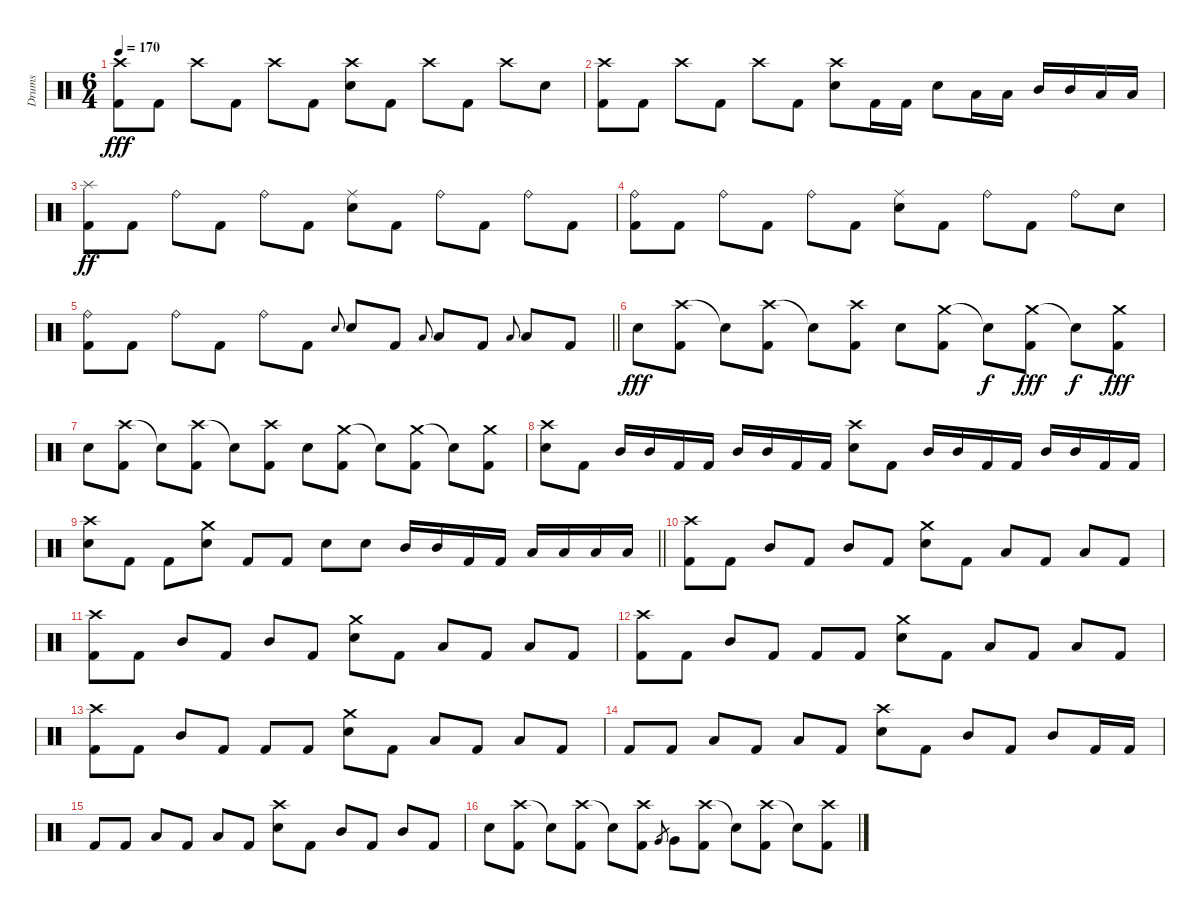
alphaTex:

\track ("Drums" "Drums") {instrument percussion}
\staff {score}
\articulation defaults
\ts (6 4)
\tempo 170
\clef neutral
\ks c
("Crash high (hit)" "Kick (hit) 2").8{dy fff} "Kick (hit) 2".8 "Crash high (hit)".8 "Kick (hit) 2".8 "Crash high (hit)".8 "Kick (hit) 2".8 ("Crash high (hit)" "Snare (hit) 2").8 "Kick (hit) 2".8 "Crash high (hit)".8 "Kick (hit) 2".8 "Crash high (hit)".8 "Snare (hit) 2".8 |
("Crash high (hit)" "Kick (hit) 2").8 "Kick (hit) 2".8 "Crash high (hit)".8 "Kick (hit) 2".8 "Crash high (hit)".8 "Kick (hit) 2".8 ("Crash high (hit)" "Snare (hit) 2").8 "Kick (hit) 2".16 "Kick (hit) 2".16 "Snare (hit) 2".8 "Low Tom (hit)".16 "Low Tom (hit)".16 "Mid Tom (hit)".16 "Mid Tom (hit)".16 "Low Tom (hit)".16 "Low Tom (hit)".16 |
("Splash (hit)" "Kick (hit) 2").8{dy ff} "Kick (hit) 2".8 "Ride (bell)".8 "Kick (hit) 2".8 "Ride (bell)".8 "Kick (hit) 2".8 ("Ride (middle)" "Snare (hit) 2").8 "Kick (hit) 2".8 "Ride (bell)".8 "Kick (hit) 2".8 "Ride (bell)".8 "Kick (hit) 2".8 |
("Ride (bell)" "Kick (hit) 2").8 "Kick (hit) 2".8 "Ride (bell)".8 "Kick (hit) 2".8 "Ride (bell)".8 "Kick (hit) 2".8 ("Ride (middle)" "Snare (hit) 2").8 "Kick (hit) 2".8 "Ride (bell)".8 "Kick (hit) 2".8 "Ride (bell)".8 "Snare (hit) 2".8 |
\barLineRight lightlight
("Ride (bell)" "Kick (hit) 2").8 "Kick (hit) 2".8 "Ride (bell)".8 "Kick (hit) 2".8 "Ride (bell)".8 "Kick (hit) 2".8 "Snare (hit) 2".8{gr onbeat} "Snare (hit) 2".8 "Kick (hit) 2".8 "Low Tom (hit)".8{gr onbeat} "Low Tom (hit)".8 "Kick (hit) 2".8 "Low Tom (hit)".8{gr onbeat} "Low Tom (hit)".8 "Kick (hit) 2".8 |
"Snare (hit) 2".8{dy fff} ("Crash high (hit)" "Kick (hit) 2").8 "Snare (hit)"{t}.8 ("Crash high (hit)" "Kick (hit) 2").8 "Snare (hit)"{t}.8 ("Crash high (hit)" "Kick (hit) 2").8 "Snare (hit) 2".8 ("Crash medium (hit)" "Kick (hit) 2").8 "Snare (hit)"{t}.8{dy f} ("Crash medium (hit)" "Kick (hit) 2").8{dy fff} "Snare (hit)"{t}.8{dy f} ("Crash medium (hit)" "Kick (hit) 2").8{dy fff} |
"Snare (hit) 2".8 ("Crash high (hit)" "Kick (hit) 2").8 "Snare (hit)"{t}.8 ("Crash high (hit)" "Kick (hit) 2").8 "Snare (hit)"{t}.8 ("Crash high (hit)" "Kick (hit) 2").8 "Snare (hit) 2".8 ("Crash medium (hit)" "Kick (hit) 2").8 "Snare (hit)"{t}.8 ("Crash medium (hit)" "Kick (hit) 2").8 "Snare (hit)"{t}.8 ("Crash medium (hit)" "Kick (hit) 2").8 |
("Crash high (hit)" "Snare (hit) 2").8 "Kick (hit) 2".8 "Mid Tom (hit)".16 "Mid Tom (hit)".16 "Kick (hit) 2".16 "Kick (hit) 2".16 "Mid Tom (hit)".16 "Mid Tom (hit)".16 "Kick (hit) 2".16 "Kick (hit) 2".16 ("Crash high (hit)" "Snare (hit) 2").8 "Kick (hit) 2".8 "Mid Tom (hit)".16 "Mid Tom (hit)".16 "Kick (hit) 2".16 "Kick (hit) 2".16 "Mid Tom (hit)".16 "Mid Tom (hit)".16 "Kick (hit) 2".16 "Kick (hit) 2".16 |
\barLineRight lightlight
("Crash high (hit)" "Snare (hit) 2").8 "Kick (hit) 2".8 "Kick (hit) 2".8 ("Crash medium (hit)" "Snare (hit) 2").8 "Kick (hit) 2".8 "Kick (hit) 2".8 "Snare (hit) 2".8 "Snare (hit) 2".8 "Mid Tom (hit)".16 "Mid Tom (hit)".16 "Kick (hit) 2".16 "Kick (hit) 2".16 "Low Tom (hit)".16 "Low Tom (hit)".16 "Low Tom (hit)".16 "Low Tom (hit)".16 |
\section ("" "")
("Crash high (hit)" "Kick (hit) 2").8 "Kick (hit) 2".8 "Mid Tom (hit)".8 "Kick (hit) 2".8 "Mid Tom (hit)".8 "Kick (hit) 2".8 ("Crash medium (hit)" "Snare (hit) 2").8 "Kick (hit) 2".8 "Low Tom (hit)".8 "Kick (hit) 2".8 "Low Tom (hit)".8 "Kick (hit) 2".8 |
("Crash high (hit)" "Kick (hit) 2").8 "Kick (hit) 2".8 "Mid Tom (hit)".8 "Kick (hit) 2".8 "Mid Tom (hit)".8 "Kick (hit) 2".8 ("Crash medium (hit)" "Snare (hit) 2").8 "Kick (hit) 2".8 "Low Tom (hit)".8 "Kick (hit) 2".8 "Low Tom (hit)".8 "Kick (hit) 2".8 |
("Crash high (hit)" "Kick (hit) 2").8 "Kick (hit) 2".8 "Mid Tom (hit)".8 "Kick (hit) 2".8 "Kick (hit) 2".8 "Kick (hit) 2".8 ("Crash medium (hit)" "Snare (hit) 2").8 "Kick (hit) 2".8 "Low Tom (hit)".8 "Kick (hit) 2".8 "Low Tom (hit)".8 "Kick (hit) 2".8 |
("Crash high (hit)" "Kick (hit) 2").8 "Kick (hit) 2".8 "Mid Tom (hit)".8 "Kick (hit) 2".8 "Kick (hit) 2".8 "Kick (hit) 2".8 ("Crash medium (hit)" "Snare (hit) 2").8 "Kick (hit) 2".8 "Low Tom (hit)".8 "Kick (hit) 2".8 "Low Tom (hit)".8 "Kick (hit) 2".8 |
"Kick (hit) 2".8 "Kick (hit) 2".8 "Low Tom (hit)".8 "Kick (hit) 2".8 "Low Tom (hit)".8 "Kick (hit) 2".8 ("Crash high (hit)" "Snare (hit) 2").8 "Kick (hit) 2".8 "Mid Tom (hit)".8 "Kick (hit) 2".8 "Mid Tom (hit)".8 "Kick (hit) 2".16 "Kick (hit) 2".16 |
"Kick (hit) 2".8 "Kick (hit) 2".8 "Low Tom (hit)".8 "Kick (hit) 2".8 "Low Tom (hit)".8 "Kick (hit) 2".8 ("Crash high (hit)" "Snare (hit) 2").8 "Kick (hit) 2".8 "Mid Tom (hit)".8 "Kick (hit) 2".8 "Mid Tom (hit)".8 "Kick (hit) 2".8 |
"Snare (hit) 2".8 ("Crash high (hit)" "Kick (hit) 2").8 "Snare (hit)"{t}.8 ("Crash high (hit)" "Kick (hit) 2").8 "Snare (hit)"{t}.8 ("Crash high (hit)" "Kick (hit) 2").8 "Very Low Tom (hit)".8{gr} "Very Low Tom (hit)".8 ("Crash high (hit)" "Kick (hit) 2").8 "Snare (hit)"{t}.8 ("Crash high (hit)" "Kick (hit) 2").8 "Snare (hit)"{t}.8 ("Crash high (hit)" "Kick (hit) 2").8
